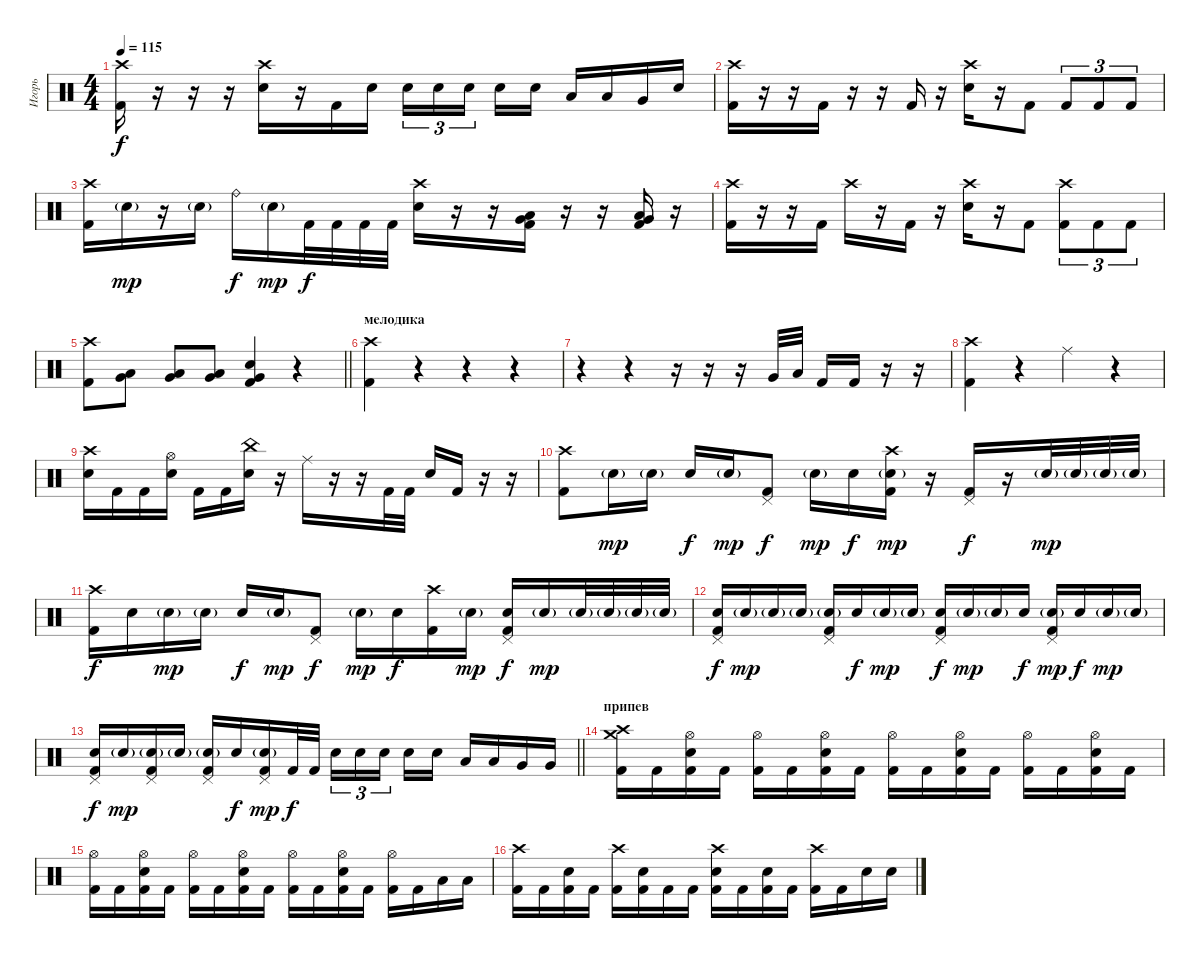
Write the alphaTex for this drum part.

\track ("Игорь" "Игорь") {instrument percussion}
\staff {score}
\articulation defaults
\ts (4 4)
\tempo 115
\clef neutral
\ks c
("Crash high (hit)" "Kick (hit) 2").16{dy f} r.16 r.16 r.16 ("Crash high (hit)" "Electric Snare (hit)").16 r.16 "Kick (hit) 2".16 "Electric Snare (hit)".16 "Electric Snare (hit)".16{tu (3 2)} "Electric Snare (hit)".16{tu (3 2)} "Electric Snare (hit)".16{tu (3 2) beam splitsecondary} "Electric Snare (hit)".16 "Electric Snare (hit)".16 "Low Tom (hit)".16 "Low Tom (hit)".16 "Very Low Tom (hit)".16 "Electric Snare (hit)".16 |
("Crash high (hit)" "Kick (hit) 2").16 r.16 r.16 "Kick (hit) 2".16 r.16 r.16 "Kick (hit) 2".16 r.16 ("Crash high (hit)" "Electric Snare (hit)").16 r.16 "Kick (hit) 2".8 "Kick (hit) 2".8{tu (3 2)} "Kick (hit) 2".8{tu (3 2)} "Kick (hit) 2".8{tu (3 2)} |
("Crash high (hit)" "Kick (hit) 2").16 "Electric Snare (hit)"{g}.16{dy mp} r.16 "Electric Snare (hit)"{g}.16 "Ride (bell)".16{dy f} "Electric Snare (hit)"{g}.16{dy mp} "Kick (hit) 2".32{dy f} "Kick (hit) 2".32 "Kick (hit) 2".32 "Kick (hit) 2".32 ("Crash high (hit)" "Electric Snare (hit)").16 r.16 r.16 ("Low Tom (hit)" "Very Low Tom (hit)" "Kick (hit) 2").16 r.16 r.16 ("Low Tom (hit)" "Very Low Tom (hit)" "Kick (hit) 2").16 r.16 |
("Crash high (hit)" "Kick (hit) 2").16 r.16 r.16 "Kick (hit) 2".16 "Crash high (hit)".16 r.16 "Kick (hit) 2".16 r.16 ("Crash high (hit)" "Electric Snare (hit)").16 r.16 "Kick (hit) 2".8 ("Crash high (hit)" "Kick (hit) 2").8{tu (3 2)} "Kick (hit) 2".8{tu (3 2)} "Kick (hit) 2".8{tu (3 2)} |
\barLineRight lightlight
("Crash high (hit)" "Kick (hit) 2").8 ("Low Tom (hit)" "Very Low Tom (hit)").8 ("Low Tom (hit)" "Very Low Tom (hit)").8 ("Low Tom (hit)" "Very Low Tom (hit)").8 ("Very Low Tom (hit)" "Electric Snare (hit)" "Kick (hit) 2").4 r.4 |
\section ("" "мелодика")
("Crash high (hit)" "Kick (hit) 2").4 r.4 r.4 r.4 |
r.4 r.4 r.16 r.16 r.16 "Very Low Tom (hit)".32 "Low Tom (hit)".32 "Kick (hit) 2".16 "Kick (hit) 2".16 r.16 r.16 |
("Crash high (hit)" "Kick (hit) 2").4 r.4 "Ride (middle)".4 r.4 |
("Crash high (hit)" "Electric Snare (hit)").16 "Kick (hit) 2".16 "Kick (hit) 2".16 ("Hi-Hat (open)" "Electric Snare (hit)").16 "Kick (hit) 2".16 "Kick (hit) 2".16 ("China (hit)" "Electric Snare (hit)").16 r.16 "Ride (middle)".16 r.16 r.16 "Kick (hit) 2".32 "Kick (hit) 2".32 "Electric Snare (hit)".16 "Kick (hit) 2".16 r.16 r.16 |
("Crash high (hit)" "Kick (hit) 2").8 "Electric Snare (hit)"{g}.16{dy mp} "Electric Snare (hit)"{g}.16 "Electric Snare (hit)".16{dy f} "Electric Snare (hit)"{g}.16{dy mp} ("Pedal Hi-Hat (hit)" "Kick (hit) 2").8{dy f} "Electric Snare (hit)"{g}.16{dy mp} "Electric Snare (hit)".16{dy f} ("Crash high (hit)" "Electric Snare (hit)"{g} "Kick (hit) 2").16{dy mp} r.16 ("Pedal Hi-Hat (hit)" "Kick (hit) 2").16{dy f} r.16 "Electric Snare (hit)"{g}.32{dy mp} "Electric Snare (hit)"{g}.32 "Electric Snare (hit)"{g}.32 "Electric Snare (hit)"{g}.32 |
("Crash high (hit)" "Kick (hit) 2").16{dy f} "Electric Snare (hit)".16 "Electric Snare (hit)"{g}.16{dy mp} "Electric Snare (hit)"{g}.16 "Electric Snare (hit)".16{dy f} "Electric Snare (hit)"{g}.16{dy mp} ("Pedal Hi-Hat (hit)" "Kick (hit) 2").8{dy f} "Electric Snare (hit)"{g}.16{dy mp} "Electric Snare (hit)".16{dy f} ("Crash high (hit)" "Kick (hit) 2").16 "Electric Snare (hit)"{g}.16{dy mp} ("Pedal Hi-Hat (hit)" "Electric Snare (hit)" "Kick (hit) 2").16{dy f} "Electric Snare (hit)"{g}.16{dy mp} "Electric Snare (hit)"{g}.32 "Electric Snare (hit)"{g}.32 "Electric Snare (hit)"{g}.32 "Electric Snare (hit)"{g}.32 |
("Pedal Hi-Hat (hit)" "Electric Snare (hit)" "Kick (hit) 2").16{dy f} "Electric Snare (hit)"{g}.16{dy mp} "Electric Snare (hit)"{g}.16 "Electric Snare (hit)"{g}.16 ("Pedal Hi-Hat (hit)" "Electric Snare (hit)"{g} "Kick (hit) 2").16 "Electric Snare (hit)".16{dy f} "Electric Snare (hit)"{g}.16{dy mp} "Electric Snare (hit)"{g}.16 ("Pedal Hi-Hat (hit)" "Electric Snare (hit)" "Kick (hit) 2").16{dy f} "Electric Snare (hit)"{g}.16{dy mp} "Electric Snare (hit)"{g}.16 "Electric Snare (hit)".16{dy f} ("Pedal Hi-Hat (hit)" "Electric Snare (hit)"{g} "Kick (hit) 2").16{dy mp} "Electric Snare (hit)".16{dy f} "Electric Snare (hit)"{g}.16{dy mp} "Electric Snare (hit)"{g}.16 |
\barLineRight lightlight
("Pedal Hi-Hat (hit)" "Electric Snare (hit)" "Kick (hit) 2").16{dy f} "Electric Snare (hit)"{g}.16{dy mp} ("Pedal Hi-Hat (hit)" "Electric Snare (hit)"{g} "Kick (hit) 2").16 "Electric Snare (hit)"{g}.16 ("Pedal Hi-Hat (hit)" "Electric Snare (hit)"{g} "Kick (hit) 2").16 "Electric Snare (hit)".16{dy f} ("Pedal Hi-Hat (hit)" "Electric Snare (hit)"{g} "Kick (hit) 2").16{dy mp} "Kick (hit) 2".32{dy f} "Kick (hit) 2".32 "Electric Snare (hit)".16{tu (3 2)} "Electric Snare (hit)".16{tu (3 2)} "Electric Snare (hit)".16{tu (3 2) beam splitsecondary} "Electric Snare (hit)".16 "Electric Snare (hit)".16 "Low Tom (hit)".16 "Low Tom (hit)".16 "Very Low Tom (hit)".16 "Very Low Tom (hit)".16 |
\section ("" "припев")
("Crash high (hit)" "Crash medium (hit)" "Kick (hit) 2").16 "Kick (hit) 2".16 ("Hi-Hat (open)" "Electric Snare (hit)" "Kick (hit) 2").16 "Kick (hit) 2".16 ("Hi-Hat (open)" "Kick (hit) 2").16 "Kick (hit) 2".16 ("Hi-Hat (open)" "Electric Snare (hit)" "Kick (hit) 2").16 "Kick (hit) 2".16 ("Hi-Hat (open)" "Kick (hit) 2").16 "Kick (hit) 2".16 ("Hi-Hat (open)" "Electric Snare (hit)" "Kick (hit) 2").16 "Kick (hit) 2".16 ("Hi-Hat (open)" "Kick (hit) 2").16 "Kick (hit) 2".16 ("Hi-Hat (open)" "Electric Snare (hit)" "Kick (hit) 2").16 "Kick (hit) 2".16 |
("Hi-Hat (open)" "Kick (hit) 2").16 "Kick (hit) 2".16 ("Hi-Hat (open)" "Electric Snare (hit)" "Kick (hit) 2").16 "Kick (hit) 2".16 ("Hi-Hat (open)" "Kick (hit) 2").16 "Kick (hit) 2".16 ("Hi-Hat (open)" "Electric Snare (hit)" "Kick (hit) 2").16 "Kick (hit) 2".16 ("Hi-Hat (open)" "Kick (hit) 2").16 "Kick (hit) 2".16 ("Hi-Hat (open)" "Electric Snare (hit)" "Kick (hit) 2").16 "Kick (hit) 2".16 ("Hi-Hat (open)" "Kick (hit) 2").16 "Kick (hit) 2".16 "Low Tom (hit)".16 "Low Tom (hit)".16 |
("Crash high (hit)" "Kick (hit) 2").16 "Kick (hit) 2".16 ("Electric Snare (hit)" "Kick (hit) 2").16 "Kick (hit) 2".16 ("Crash high (hit)" "Kick (hit) 2").16 ("Electric Snare (hit)" "Kick (hit) 2").16 "Kick (hit) 2".16 "Kick (hit) 2".16 ("Crash high (hit)" "Electric Snare (hit)" "Kick (hit) 2").16 "Kick (hit) 2".16 ("Electric Snare (hit)" "Kick (hit) 2").16 "Kick (hit) 2".16 ("Crash high (hit)" "Kick (hit) 2").16 "Kick (hit) 2".16 "Electric Snare (hit)".16 "Electric Snare (hit)".16
